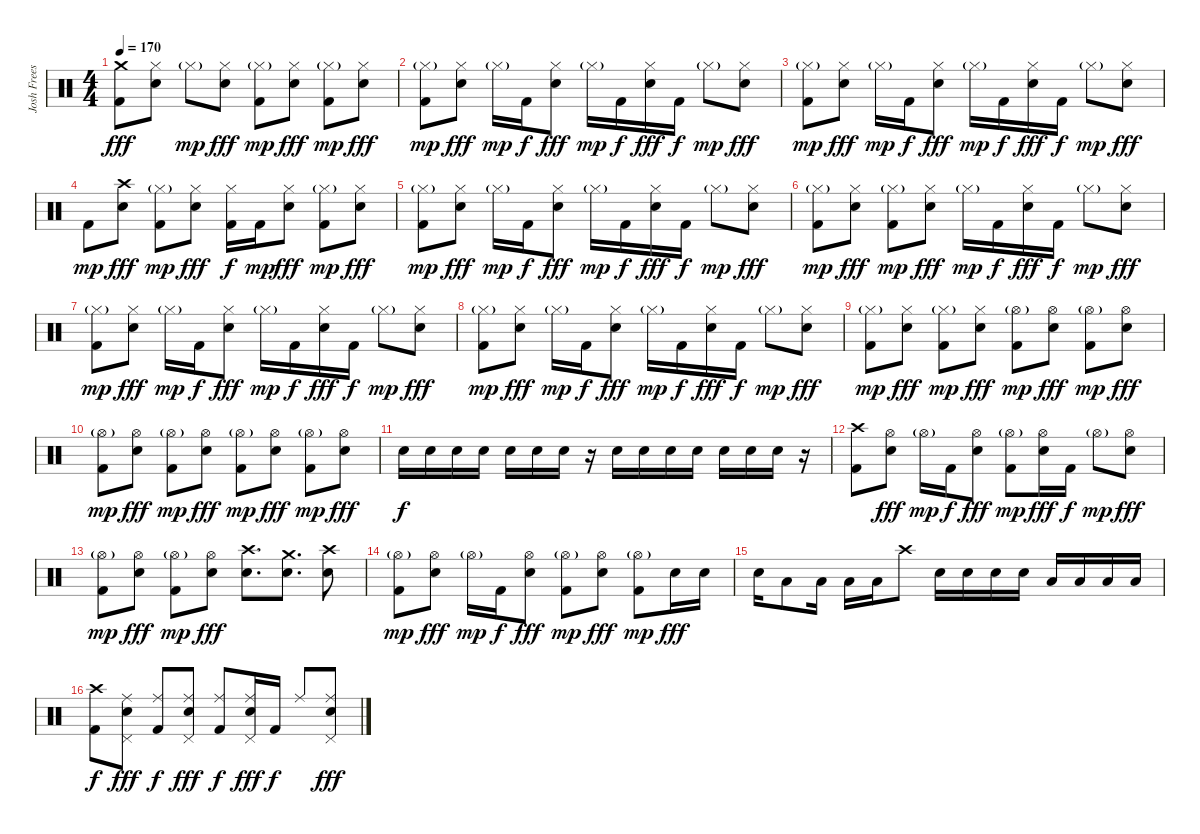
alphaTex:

\track ("Josh Freese" "Josh Frees") {solo instrument percussion}
\staff
\articulation defaults
\ts (4 4)
\tempo 170
\clef neutral
\ks c
("Crash medium (hit)" "Kick (hit) 2").8{dy fff} ("Hi-Hat (closed)" "Electric Snare (hit)").8 "Hi-Hat (closed)"{g}.8{dy mp} ("Hi-Hat (closed)" "Electric Snare (hit)").8{dy fff} ("Hi-Hat (closed)"{g} "Kick (hit) 2").8{dy mp} ("Hi-Hat (closed)" "Electric Snare (hit)").8{dy fff} ("Hi-Hat (closed)"{g} "Kick (hit) 2").8{dy mp} ("Hi-Hat (closed)" "Electric Snare (hit)").8{dy fff} |
("Hi-Hat (closed)"{g} "Kick (hit) 2").8{dy mp} ("Hi-Hat (closed)" "Electric Snare (hit)").8{dy fff} "Hi-Hat (closed)"{g}.16{dy mp} "Kick (hit) 2".16{dy f} ("Hi-Hat (closed)" "Electric Snare (hit)").8{dy fff} "Hi-Hat (closed)"{g}.16{dy mp} "Kick (hit) 2".16{dy f} ("Hi-Hat (closed)" "Electric Snare (hit)").16{dy fff} "Kick (hit) 2".16{dy f} "Hi-Hat (closed)"{g}.8{dy mp} ("Hi-Hat (closed)" "Electric Snare (hit)").8{dy fff} |
("Hi-Hat (closed)"{g} "Kick (hit) 2").8{dy mp} ("Hi-Hat (closed)" "Electric Snare (hit)").8{dy fff} "Hi-Hat (closed)"{g}.16{dy mp} "Kick (hit) 2".16{dy f} ("Hi-Hat (closed)" "Electric Snare (hit)").8{dy fff} "Hi-Hat (closed)"{g}.16{dy mp} "Kick (hit) 2".16{dy f} ("Hi-Hat (closed)" "Electric Snare (hit)").16{dy fff} "Kick (hit) 2".16{dy f} "Hi-Hat (closed)"{g}.8{dy mp} ("Hi-Hat (closed)" "Electric Snare (hit)").8{dy fff} |
"Kick (hit) 2".8{dy mp} ("Crash high (hit)" "Electric Snare (hit)").8{dy fff} ("Hi-Hat (closed)"{g} "Kick (hit) 2").8{dy mp} ("Hi-Hat (closed)" "Electric Snare (hit)").8{dy fff} ("Hi-Hat (closed)" "Kick (hit) 2").16{dy f} "Kick (hit) 2".16{dy mp} ("Hi-Hat (closed)" "Electric Snare (hit)").8{dy fff} ("Hi-Hat (closed)"{g} "Kick (hit) 2").8{dy mp} ("Hi-Hat (closed)" "Electric Snare (hit)").8{dy fff} |
("Hi-Hat (closed)"{g} "Kick (hit) 2").8{dy mp} ("Hi-Hat (closed)" "Electric Snare (hit)").8{dy fff} "Hi-Hat (closed)"{g}.16{dy mp} "Kick (hit) 2".16{dy f} ("Hi-Hat (closed)" "Electric Snare (hit)").8{dy fff} "Hi-Hat (closed)"{g}.16{dy mp} "Kick (hit) 2".16{dy f} ("Hi-Hat (closed)" "Electric Snare (hit)").16{dy fff} "Kick (hit) 2".16{dy f} "Hi-Hat (closed)"{g}.8{dy mp} ("Hi-Hat (closed)" "Electric Snare (hit)").8{dy fff} |
("Hi-Hat (closed)"{g} "Kick (hit) 2").8{dy mp} ("Hi-Hat (closed)" "Electric Snare (hit)").8{dy fff} ("Hi-Hat (closed)"{g} "Kick (hit) 2").8{dy mp} ("Hi-Hat (closed)" "Electric Snare (hit)").8{dy fff} "Hi-Hat (closed)"{g}.16{dy mp} "Kick (hit) 2".16{dy f} ("Hi-Hat (closed)" "Electric Snare (hit)").16{dy fff} "Kick (hit) 2".16{dy f} "Hi-Hat (closed)"{g}.8{dy mp} ("Hi-Hat (closed)" "Electric Snare (hit)").8{dy fff} |
("Hi-Hat (closed)"{g} "Kick (hit) 2").8{dy mp} ("Hi-Hat (closed)" "Electric Snare (hit)").8{dy fff} "Hi-Hat (closed)"{g}.16{dy mp} "Kick (hit) 2".16{dy f} ("Hi-Hat (closed)" "Electric Snare (hit)").8{dy fff} "Hi-Hat (closed)"{g}.16{dy mp} "Kick (hit) 2".16{dy f} ("Hi-Hat (closed)" "Electric Snare (hit)").16{dy fff} "Kick (hit) 2".16{dy f} "Hi-Hat (closed)"{g}.8{dy mp} ("Hi-Hat (closed)" "Electric Snare (hit)").8{dy fff} |
("Hi-Hat (closed)"{g} "Kick (hit) 2").8{dy mp} ("Hi-Hat (closed)" "Electric Snare (hit)").8{dy fff} "Hi-Hat (closed)"{g}.16{dy mp} "Kick (hit) 2".16{dy f} ("Hi-Hat (closed)" "Electric Snare (hit)").8{dy fff} "Hi-Hat (closed)"{g}.16{dy mp} "Kick (hit) 2".16{dy f} ("Hi-Hat (closed)" "Electric Snare (hit)").16{dy fff} "Kick (hit) 2".16{dy f} "Hi-Hat (closed)"{g}.8{dy mp} ("Hi-Hat (closed)" "Electric Snare (hit)").8{dy fff} |
("Hi-Hat (closed)"{g} "Kick (hit) 2").8{dy mp} ("Hi-Hat (closed)" "Electric Snare (hit)").8{dy fff} ("Hi-Hat (closed)"{g} "Kick (hit) 2").8{dy mp} ("Hi-Hat (closed)" "Electric Snare (hit)").8{dy fff} ("Hi-Hat (open)"{g} "Kick (hit) 2").8{dy mp} ("Hi-Hat (open)" "Electric Snare (hit)").8{dy fff} ("Hi-Hat (open)"{g} "Kick (hit) 2").8{dy mp} ("Hi-Hat (open)" "Electric Snare (hit)").8{dy fff} |
("Hi-Hat (open)"{g} "Kick (hit) 2").8{dy mp} ("Hi-Hat (open)" "Electric Snare (hit)").8{dy fff} ("Hi-Hat (open)"{g} "Kick (hit) 2").8{dy mp} ("Hi-Hat (open)" "Electric Snare (hit)").8{dy fff} ("Hi-Hat (open)"{g} "Kick (hit) 2").8{dy mp} ("Hi-Hat (open)" "Electric Snare (hit)").8{dy fff} ("Hi-Hat (open)"{g} "Kick (hit) 2").8{dy mp} ("Hi-Hat (open)" "Electric Snare (hit)").8{dy fff} |
"Electric Snare (hit)".16{dy f} "Electric Snare (hit)".16 "Electric Snare (hit)".16 "Electric Snare (hit)".16 "Electric Snare (hit)".16 "Electric Snare (hit)".16 "Electric Snare (hit)".16 r.16 "Electric Snare (hit)".16 "Electric Snare (hit)".16 "Electric Snare (hit)".16 "Electric Snare (hit)".16 "Electric Snare (hit)".16 "Electric Snare (hit)".16 "Electric Snare (hit)".16 r.16 |
("Crash high (hit)" "Kick (hit) 2").8 ("Hi-Hat (open)" "Electric Snare (hit)").8{dy fff} "Hi-Hat (open)"{g}.16{dy mp} "Kick (hit) 2".16{dy f} ("Hi-Hat (open)" "Electric Snare (hit)").8{dy fff} ("Hi-Hat (open)"{g} "Kick (hit) 2").8{dy mp} ("Hi-Hat (open)" "Electric Snare (hit)").16{dy fff} "Kick (hit) 2".16{dy f} "Hi-Hat (open)"{g}.8{dy mp} ("Hi-Hat (open)" "Electric Snare (hit)").8{dy fff} |
("Hi-Hat (open)"{g} "Kick (hit) 2").8{dy mp} ("Hi-Hat (open)" "Electric Snare (hit)").8{dy fff} ("Hi-Hat (open)"{g} "Kick (hit) 2").8{dy mp} ("Hi-Hat (open)" "Electric Snare (hit)").8{dy fff} ("Crash high (hit)" "Electric Snare (hit)").8{d} ("Crash medium (hit)" "Electric Snare (hit)").8{d} ("Crash high (hit)" "Electric Snare (hit)").8 |
("Hi-Hat (open)"{g} "Kick (hit) 2").8{dy mp} ("Hi-Hat (open)" "Electric Snare (hit)").8{dy fff} "Hi-Hat (open)"{g}.16{dy mp} "Kick (hit) 2".16{dy f} ("Hi-Hat (open)" "Electric Snare (hit)").8{dy fff} ("Hi-Hat (open)"{g} "Kick (hit) 2").8{dy mp} ("Hi-Hat (open)" "Electric Snare (hit)").8{dy fff} ("Hi-Hat (open)"{g} "Kick (hit) 2").8{dy mp} "Electric Snare (hit)".16{dy fff} "Electric Snare (hit)".16 |
"Electric Snare (hit)".16 "Low Floor Tom (hit)".8 "Low Tom (hit)".16 "Low Tom (hit)".16 "Low Tom (hit)".16 "Crash high (hit)".8 "Electric Snare (hit)".16 "Electric Snare (hit)".16 "Electric Snare (hit)".16 "Electric Snare (hit)".16 "Low Tom (hit)".16 "Low Tom (hit)".16 "Low Floor Tom (hit)".16 "Low Floor Tom (hit)".16 |
("Crash high (hit)" "Kick (hit) 2").8{dy f} ("Ride (middle)" "Electric Snare (hit)" "Pedal Hi-Hat (hit)").8{dy fff} ("Ride (middle)" "Kick (hit) 2").8{dy f} ("Ride (middle)" "Electric Snare (hit)" "Pedal Hi-Hat (hit)").8{dy fff} ("Ride (middle)" "Kick (hit) 2").8{dy f} ("Ride (middle)" "Electric Snare (hit)" "Pedal Hi-Hat (hit)").16{dy fff} "Kick (hit) 2".16{dy f} "Ride (middle)".8 ("Ride (middle)" "Electric Snare (hit)" "Pedal Hi-Hat (hit)").8{dy fff}
